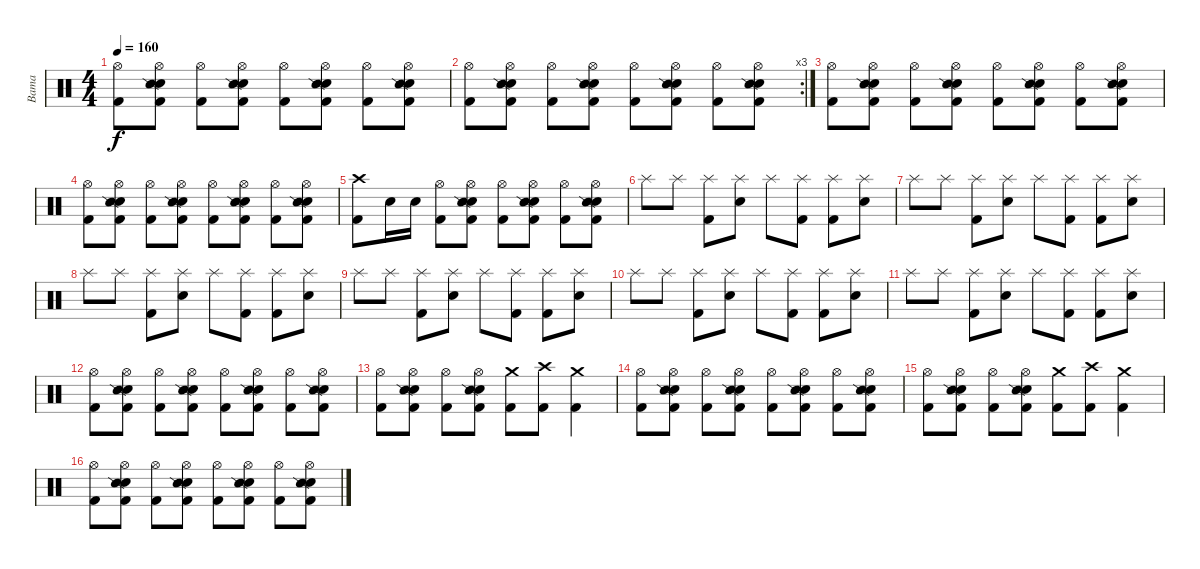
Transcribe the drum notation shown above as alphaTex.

\track ("Bama" "Bama") {instrument percussion}
\staff {score}
\articulation defaults
\ts (4 4)
\tempo 160
\clef neutral
\ks c
("Hi-Hat (open)" "Kick (hit) 2").8{dy f} ("Hi-Hat (open)" "Electric Snare (hit)" "Snare (side stick) 2" "Kick (hit) 2").8 ("Hi-Hat (open)" "Kick (hit) 2").8 ("Hi-Hat (open)" "Electric Snare (hit)" "Snare (side stick) 2" "Kick (hit) 2").8 ("Hi-Hat (open)" "Kick (hit) 2").8 ("Hi-Hat (open)" "Electric Snare (hit)" "Snare (side stick) 2" "Kick (hit) 2").8 ("Hi-Hat (open)" "Kick (hit) 2").8 ("Hi-Hat (open)" "Electric Snare (hit)" "Snare (side stick) 2" "Kick (hit) 2").8 |
\rc 3
("Hi-Hat (open)" "Kick (hit) 2").8 ("Hi-Hat (open)" "Electric Snare (hit)" "Snare (side stick) 2" "Kick (hit) 2").8 ("Hi-Hat (open)" "Kick (hit) 2").8 ("Hi-Hat (open)" "Electric Snare (hit)" "Snare (side stick) 2" "Kick (hit) 2").8 ("Hi-Hat (open)" "Kick (hit) 2").8 ("Hi-Hat (open)" "Electric Snare (hit)" "Snare (side stick) 2" "Kick (hit) 2").8 ("Hi-Hat (open)" "Kick (hit) 2").8 ("Hi-Hat (open)" "Electric Snare (hit)" "Snare (side stick) 2" "Kick (hit) 2").8 |
("Hi-Hat (open)" "Kick (hit) 2").8 ("Hi-Hat (open)" "Electric Snare (hit)" "Snare (side stick) 2" "Kick (hit) 2").8 ("Hi-Hat (open)" "Kick (hit) 2").8 ("Hi-Hat (open)" "Electric Snare (hit)" "Snare (side stick) 2" "Kick (hit) 2").8 ("Hi-Hat (open)" "Kick (hit) 2").8 ("Hi-Hat (open)" "Electric Snare (hit)" "Snare (side stick) 2" "Kick (hit) 2").8 ("Hi-Hat (open)" "Kick (hit) 2").8 ("Hi-Hat (open)" "Electric Snare (hit)" "Snare (side stick) 2" "Kick (hit) 2").8 |
("Hi-Hat (open)" "Kick (hit) 2").8 ("Hi-Hat (open)" "Electric Snare (hit)" "Snare (side stick) 2" "Kick (hit) 2").8 ("Hi-Hat (open)" "Kick (hit) 2").8 ("Hi-Hat (open)" "Electric Snare (hit)" "Snare (side stick) 2" "Kick (hit) 2").8 ("Hi-Hat (open)" "Kick (hit) 2").8 ("Hi-Hat (open)" "Electric Snare (hit)" "Snare (side stick) 2" "Kick (hit) 2").8 ("Hi-Hat (open)" "Kick (hit) 2").8 ("Hi-Hat (open)" "Electric Snare (hit)" "Snare (side stick) 2" "Kick (hit) 2").8 |
("Crash high (hit)" "Kick (hit) 2").8 "Electric Snare (hit)".16 "Electric Snare (hit)".16 ("Hi-Hat (open)" "Kick (hit) 2").8 ("Hi-Hat (open)" "Electric Snare (hit)" "Snare (side stick) 2" "Kick (hit) 2").8 ("Hi-Hat (open)" "Kick (hit) 2").8 ("Hi-Hat (open)" "Electric Snare (hit)" "Snare (side stick) 2" "Kick (hit) 2").8 ("Hi-Hat (open)" "Kick (hit) 2").8 ("Hi-Hat (open)" "Electric Snare (hit)" "Snare (side stick) 2" "Kick (hit) 2").8 |
"Splash (hit)".8 "Splash (hit)".8 ("Splash (hit)" "Kick (hit) 2").8 ("Splash (hit)" "Electric Snare (hit)").8 "Splash (hit)".8 ("Splash (hit)" "Kick (hit) 2").8 ("Splash (hit)" "Kick (hit) 2").8 ("Splash (hit)" "Electric Snare (hit)").8 |
"Splash (hit)".8 "Splash (hit)".8 ("Splash (hit)" "Kick (hit) 2").8 ("Splash (hit)" "Electric Snare (hit)").8 "Splash (hit)".8 ("Splash (hit)" "Kick (hit) 2").8 ("Splash (hit)" "Kick (hit) 2").8 ("Splash (hit)" "Electric Snare (hit)").8 |
"Splash (hit)".8 "Splash (hit)".8 ("Splash (hit)" "Kick (hit) 2").8 ("Splash (hit)" "Electric Snare (hit)").8 "Splash (hit)".8 ("Splash (hit)" "Kick (hit) 2").8 ("Splash (hit)" "Kick (hit) 2").8 ("Splash (hit)" "Electric Snare (hit)").8 |
"Splash (hit)".8 "Splash (hit)".8 ("Splash (hit)" "Kick (hit) 2").8 ("Splash (hit)" "Electric Snare (hit)").8 "Splash (hit)".8 ("Splash (hit)" "Kick (hit) 2").8 ("Splash (hit)" "Kick (hit) 2").8 ("Splash (hit)" "Electric Snare (hit)").8 |
"Splash (hit)".8 "Splash (hit)".8 ("Splash (hit)" "Kick (hit) 2").8 ("Splash (hit)" "Electric Snare (hit)").8 "Splash (hit)".8 ("Splash (hit)" "Kick (hit) 2").8 ("Splash (hit)" "Kick (hit) 2").8 ("Splash (hit)" "Electric Snare (hit)").8 |
"Splash (hit)".8 "Splash (hit)".8 ("Splash (hit)" "Kick (hit) 2").8 ("Splash (hit)" "Electric Snare (hit)").8 "Splash (hit)".8 ("Splash (hit)" "Kick (hit) 2").8 ("Splash (hit)" "Kick (hit) 2").8 ("Splash (hit)" "Electric Snare (hit)").8 |
("Hi-Hat (open)" "Kick (hit) 2").8 ("Hi-Hat (open)" "Electric Snare (hit)" "Snare (side stick) 2" "Kick (hit) 2").8 ("Hi-Hat (open)" "Kick (hit) 2").8 ("Hi-Hat (open)" "Electric Snare (hit)" "Snare (side stick) 2" "Kick (hit) 2").8 ("Hi-Hat (open)" "Kick (hit) 2").8 ("Hi-Hat (open)" "Electric Snare (hit)" "Snare (side stick) 2" "Kick (hit) 2").8 ("Hi-Hat (open)" "Kick (hit) 2").8 ("Hi-Hat (open)" "Electric Snare (hit)" "Snare (side stick) 2" "Kick (hit) 2").8 |
("Hi-Hat (open)" "Kick (hit) 2").8 ("Hi-Hat (open)" "Electric Snare (hit)" "Snare (side stick) 2" "Kick (hit) 2").8 ("Hi-Hat (open)" "Kick (hit) 2").8 ("Hi-Hat (open)" "Electric Snare (hit)" "Snare (side stick) 2" "Kick (hit) 2").8 ("Crash medium (hit)" "Kick (hit) 2").8 ("Crash high (hit)" "Kick (hit) 2").8 ("Crash medium (hit)" "Kick (hit) 2").4 |
("Hi-Hat (open)" "Kick (hit) 2").8 ("Hi-Hat (open)" "Electric Snare (hit)" "Snare (side stick) 2" "Kick (hit) 2").8 ("Hi-Hat (open)" "Kick (hit) 2").8 ("Hi-Hat (open)" "Electric Snare (hit)" "Snare (side stick) 2" "Kick (hit) 2").8 ("Hi-Hat (open)" "Kick (hit) 2").8 ("Hi-Hat (open)" "Electric Snare (hit)" "Snare (side stick) 2" "Kick (hit) 2").8 ("Hi-Hat (open)" "Kick (hit) 2").8 ("Hi-Hat (open)" "Electric Snare (hit)" "Snare (side stick) 2" "Kick (hit) 2").8 |
("Hi-Hat (open)" "Kick (hit) 2").8 ("Hi-Hat (open)" "Electric Snare (hit)" "Snare (side stick) 2" "Kick (hit) 2").8 ("Hi-Hat (open)" "Kick (hit) 2").8 ("Hi-Hat (open)" "Electric Snare (hit)" "Snare (side stick) 2" "Kick (hit) 2").8 ("Crash medium (hit)" "Kick (hit) 2").8 ("Crash high (hit)" "Kick (hit) 2").8 ("Crash medium (hit)" "Kick (hit) 2").4 |
("Hi-Hat (open)" "Kick (hit) 2").8 ("Hi-Hat (open)" "Electric Snare (hit)" "Snare (side stick) 2" "Kick (hit) 2").8 ("Hi-Hat (open)" "Kick (hit) 2").8 ("Hi-Hat (open)" "Electric Snare (hit)" "Snare (side stick) 2" "Kick (hit) 2").8 ("Hi-Hat (open)" "Kick (hit) 2").8 ("Hi-Hat (open)" "Electric Snare (hit)" "Snare (side stick) 2" "Kick (hit) 2").8 ("Hi-Hat (open)" "Kick (hit) 2").8 ("Hi-Hat (open)" "Electric Snare (hit)" "Snare (side stick) 2" "Kick (hit) 2").8
